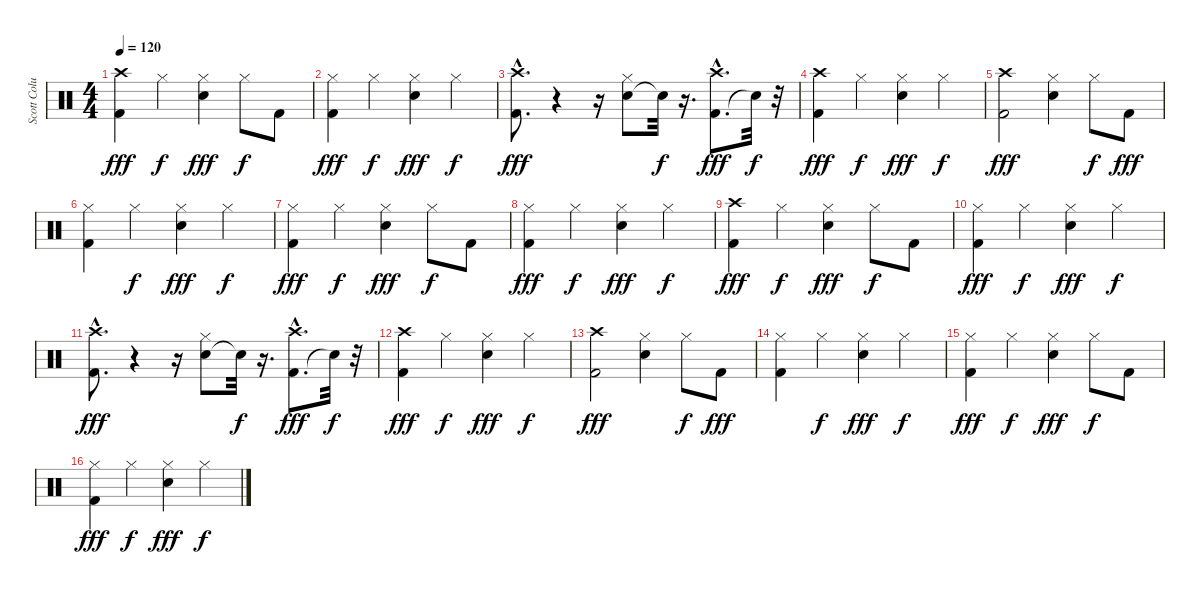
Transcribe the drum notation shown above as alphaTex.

\track ("Scott Columbus" "Scott Colu") {instrument percussion}
\staff {score}
\articulation defaults
\ts (4 4)
\tempo 120
\clef neutral
\ks c
("Kick (hit) 2" "Crash high (hit)").4{dy fff} "Hi-Hat (closed)".4{dy f} ("Electric Snare (hit)" "Hi-Hat (closed)").4{dy fff} "Hi-Hat (closed)".8{dy f} "Kick (hit) 2".8 |
("Kick (hit) 2" "Hi-Hat (closed)").4{dy fff} "Hi-Hat (closed)".4{dy f} ("Electric Snare (hit)" "Hi-Hat (closed)").4{dy fff} "Hi-Hat (closed)".4{dy f} |
("Kick (hit) 2"{hac} "Crash high (hit)"{hac}).8{d dy fff} r.4 r.16 ("Electric Snare (hit)" "Hi-Hat (closed)").8 "Snare (hit)"{t}.32{dy f} r.16{d} ("Kick (hit) 2"{hac} "Crash high (hit)"{hac}).8{d dy fff} "Snare (hit)"{t}.32{dy f} r.32 |
("Kick (hit) 2" "Crash high (hit)").4{dy fff} "Hi-Hat (closed)".4{dy f} ("Electric Snare (hit)" "Hi-Hat (closed)").4{dy fff} "Hi-Hat (closed)".4{dy f} |
("Kick (hit) 2" "Crash high (hit)").2{dy fff} ("Electric Snare (hit)" "Hi-Hat (closed)").4 "Hi-Hat (closed)".8{dy f} "Kick (hit) 2".8{dy fff} |
("Kick (hit) 2" "Hi-Hat (closed)").4 "Hi-Hat (closed)".4{dy f} ("Electric Snare (hit)" "Hi-Hat (closed)").4{dy fff} "Hi-Hat (closed)".4{dy f} |
("Kick (hit) 2" "Hi-Hat (closed)").4{dy fff} "Hi-Hat (closed)".4{dy f} ("Electric Snare (hit)" "Hi-Hat (closed)").4{dy fff} "Hi-Hat (closed)".8{dy f} "Kick (hit) 2".8 |
("Kick (hit) 2" "Hi-Hat (closed)").4{dy fff} "Hi-Hat (closed)".4{dy f} ("Electric Snare (hit)" "Hi-Hat (closed)").4{dy fff} "Hi-Hat (closed)".4{dy f} |
("Kick (hit) 2" "Crash high (hit)").4{dy fff} "Hi-Hat (closed)".4{dy f} ("Electric Snare (hit)" "Hi-Hat (closed)").4{dy fff} "Hi-Hat (closed)".8{dy f} "Kick (hit) 2".8 |
("Kick (hit) 2" "Hi-Hat (closed)").4{dy fff} "Hi-Hat (closed)".4{dy f} ("Electric Snare (hit)" "Hi-Hat (closed)").4{dy fff} "Hi-Hat (closed)".4{dy f} |
("Kick (hit) 2"{hac} "Crash high (hit)"{hac}).8{d dy fff} r.4 r.16 ("Electric Snare (hit)" "Hi-Hat (closed)").8 "Snare (hit)"{t}.32{dy f} r.16{d} ("Kick (hit) 2"{hac} "Crash high (hit)"{hac}).8{d dy fff} "Snare (hit)"{t}.32{dy f} r.32 |
("Kick (hit) 2" "Crash high (hit)").4{dy fff} "Hi-Hat (closed)".4{dy f} ("Electric Snare (hit)" "Hi-Hat (closed)").4{dy fff} "Hi-Hat (closed)".4{dy f} |
("Kick (hit) 2" "Crash high (hit)").2{dy fff} ("Electric Snare (hit)" "Hi-Hat (closed)").4 "Hi-Hat (closed)".8{dy f} "Kick (hit) 2".8{dy fff} |
("Kick (hit) 2" "Hi-Hat (closed)").4 "Hi-Hat (closed)".4{dy f} ("Electric Snare (hit)" "Hi-Hat (closed)").4{dy fff} "Hi-Hat (closed)".4{dy f} |
("Kick (hit) 2" "Hi-Hat (closed)").4{dy fff} "Hi-Hat (closed)".4{dy f} ("Electric Snare (hit)" "Hi-Hat (closed)").4{dy fff} "Hi-Hat (closed)".8{dy f} "Kick (hit) 2".8 |
("Kick (hit) 2" "Hi-Hat (closed)").4{dy fff} "Hi-Hat (closed)".4{dy f} ("Electric Snare (hit)" "Hi-Hat (closed)").4{dy fff} "Hi-Hat (closed)".4{dy f}
